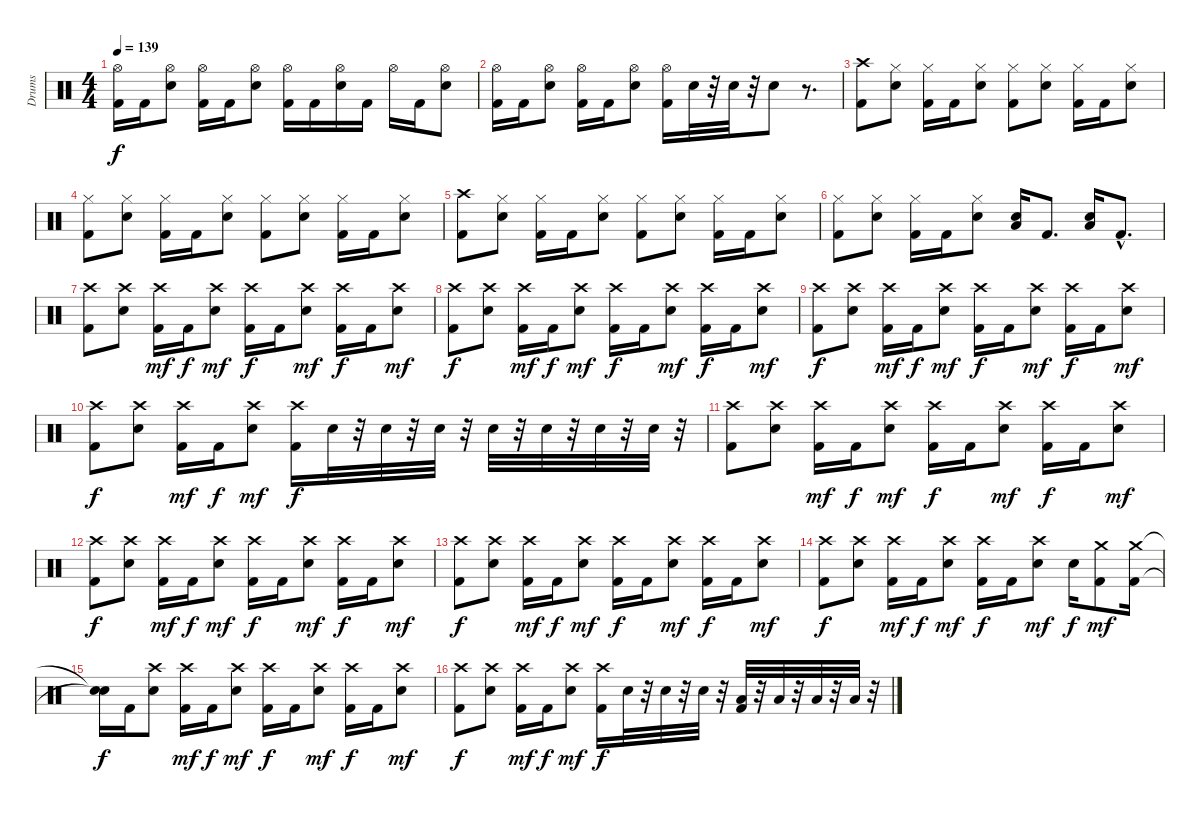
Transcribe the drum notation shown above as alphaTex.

\track ("Drums" "Drums") {instrument percussion}
\staff {score}
\articulation defaults
\ts (4 4)
\tempo 139
\clef neutral
\ks c
("Kick (hit) 2" "Hi-Hat (open)").16{dy f} "Kick (hit) 2".16 ("Hi-Hat (open)" "Electric Snare (hit)").8 ("Hi-Hat (open)" "Kick (hit) 2").16 "Kick (hit) 2".16 ("Hi-Hat (open)" "Electric Snare (hit)").8 ("Hi-Hat (open)" "Kick (hit) 2").16 "Kick (hit) 2".16 ("Hi-Hat (open)" "Electric Snare (hit)").16 "Kick (hit) 2".16 "Hi-Hat (open)".16 "Kick (hit) 2".16 ("Hi-Hat (open)" "Electric Snare (hit)").8 |
("Kick (hit) 2" "Hi-Hat (open)").16 "Kick (hit) 2".16 ("Hi-Hat (open)" "Electric Snare (hit)").8 ("Hi-Hat (open)" "Kick (hit) 2").16 "Kick (hit) 2".16 ("Hi-Hat (open)" "Electric Snare (hit)").8 ("Hi-Hat (open)" "Kick (hit) 2").16 "Electric Snare (hit)".32 r.32 "Electric Snare (hit)".32 r.32 "Electric Snare (hit)".8 r.8{d} |
("Crash high (hit)" "Kick (hit) 2").8 ("Hi-Hat (closed)" "Electric Snare (hit)").8 ("Hi-Hat (closed)" "Kick (hit) 2").16 "Kick (hit) 2".16 ("Hi-Hat (closed)" "Electric Snare (hit)").8 ("Kick (hit) 2" "Hi-Hat (closed)").8 ("Hi-Hat (closed)" "Electric Snare (hit)").8 ("Hi-Hat (closed)" "Kick (hit) 2").16 "Kick (hit) 2".16 ("Hi-Hat (closed)" "Electric Snare (hit)").8 |
("Kick (hit) 2" "Hi-Hat (closed)").8 ("Hi-Hat (closed)" "Electric Snare (hit)").8 ("Hi-Hat (closed)" "Kick (hit) 2").16 "Kick (hit) 2".16 ("Hi-Hat (closed)" "Electric Snare (hit)").8 ("Kick (hit) 2" "Hi-Hat (closed)").8 ("Hi-Hat (closed)" "Electric Snare (hit)").8 ("Hi-Hat (closed)" "Kick (hit) 2").16 "Kick (hit) 2".16 ("Hi-Hat (closed)" "Electric Snare (hit)").8 |
("Crash high (hit)" "Kick (hit) 2").8 ("Hi-Hat (closed)" "Electric Snare (hit)").8 ("Hi-Hat (closed)" "Kick (hit) 2").16 "Kick (hit) 2".16 ("Hi-Hat (closed)" "Electric Snare (hit)").8 ("Kick (hit) 2" "Hi-Hat (closed)").8 ("Hi-Hat (closed)" "Electric Snare (hit)").8 ("Hi-Hat (closed)" "Kick (hit) 2").16 "Kick (hit) 2".16 ("Hi-Hat (closed)" "Electric Snare (hit)").8 |
("Kick (hit) 2" "Hi-Hat (closed)").8 ("Hi-Hat (closed)" "Electric Snare (hit)").8 ("Hi-Hat (closed)" "Kick (hit) 2").16 "Kick (hit) 2".16 ("Hi-Hat (closed)" "Electric Snare (hit)").8 ("Electric Snare (hit)" "Low Floor Tom (hit)").16 "Kick (hit) 2".8{d} ("Electric Snare (hit)" "Low Floor Tom (hit)").16 "Kick (hit) 2"{hac}.8{d} |
("Crash high (hit)" "Kick (hit) 2").8 ("Electric Snare (hit)" "Crash high (hit)").8 ("Kick (hit) 2" "Crash high (hit)").16{dy mf} "Kick (hit) 2".16{dy f} ("Electric Snare (hit)" "Crash high (hit)").8{dy mf} ("Kick (hit) 2" "Crash high (hit)").16{dy f} "Kick (hit) 2".16 ("Electric Snare (hit)" "Crash high (hit)").8{dy mf} ("Kick (hit) 2" "Crash high (hit)").16{dy f} "Kick (hit) 2".16 ("Electric Snare (hit)" "Crash high (hit)").8{dy mf} |
("Crash high (hit)" "Kick (hit) 2").8{dy f} ("Electric Snare (hit)" "Crash high (hit)").8 ("Kick (hit) 2" "Crash high (hit)").16{dy mf} "Kick (hit) 2".16{dy f} ("Electric Snare (hit)" "Crash high (hit)").8{dy mf} ("Kick (hit) 2" "Crash high (hit)").16{dy f} "Kick (hit) 2".16 ("Electric Snare (hit)" "Crash high (hit)").8{dy mf} ("Kick (hit) 2" "Crash high (hit)").16{dy f} "Kick (hit) 2".16 ("Electric Snare (hit)" "Crash high (hit)").8{dy mf} |
("Crash high (hit)" "Kick (hit) 2").8{dy f} ("Electric Snare (hit)" "Crash high (hit)").8 ("Kick (hit) 2" "Crash high (hit)").16{dy mf} "Kick (hit) 2".16{dy f} ("Electric Snare (hit)" "Crash high (hit)").8{dy mf} ("Kick (hit) 2" "Crash high (hit)").16{dy f} "Kick (hit) 2".16 ("Electric Snare (hit)" "Crash high (hit)").8{dy mf} ("Kick (hit) 2" "Crash high (hit)").16{dy f} "Kick (hit) 2".16 ("Electric Snare (hit)" "Crash high (hit)").8{dy mf} |
("Crash high (hit)" "Kick (hit) 2").8{dy f} ("Electric Snare (hit)" "Crash high (hit)").8 ("Kick (hit) 2" "Crash high (hit)").16{dy mf} "Kick (hit) 2".16{dy f} ("Electric Snare (hit)" "Crash high (hit)").8{dy mf} ("Kick (hit) 2" "Crash high (hit)").16{dy f} "Electric Snare (hit)".32 r.32 "Electric Snare (hit)".32 r.32 "Electric Snare (hit)".32 r.32 "Electric Snare (hit)".32 r.32 "Electric Snare (hit)".32 r.32 "Electric Snare (hit)".32 r.32 "Electric Snare (hit)".32 r.32 |
("Crash high (hit)" "Kick (hit) 2").8 ("Electric Snare (hit)" "Crash high (hit)").8 ("Kick (hit) 2" "Crash high (hit)").16{dy mf} "Kick (hit) 2".16{dy f} ("Electric Snare (hit)" "Crash high (hit)").8{dy mf} ("Kick (hit) 2" "Crash high (hit)").16{dy f} "Kick (hit) 2".16 ("Electric Snare (hit)" "Crash high (hit)").8{dy mf} ("Kick (hit) 2" "Crash high (hit)").16{dy f} "Kick (hit) 2".16 ("Electric Snare (hit)" "Crash high (hit)").8{dy mf} |
("Crash high (hit)" "Kick (hit) 2").8{dy f} ("Electric Snare (hit)" "Crash high (hit)").8 ("Kick (hit) 2" "Crash high (hit)").16{dy mf} "Kick (hit) 2".16{dy f} ("Electric Snare (hit)" "Crash high (hit)").8{dy mf} ("Kick (hit) 2" "Crash high (hit)").16{dy f} "Kick (hit) 2".16 ("Electric Snare (hit)" "Crash high (hit)").8{dy mf} ("Kick (hit) 2" "Crash high (hit)").16{dy f} "Kick (hit) 2".16 ("Electric Snare (hit)" "Crash high (hit)").8{dy mf} |
("Crash high (hit)" "Kick (hit) 2").8{dy f} ("Electric Snare (hit)" "Crash high (hit)").8 ("Kick (hit) 2" "Crash high (hit)").16{dy mf} "Kick (hit) 2".16{dy f} ("Electric Snare (hit)" "Crash high (hit)").8{dy mf} ("Kick (hit) 2" "Crash high (hit)").16{dy f} "Kick (hit) 2".16 ("Electric Snare (hit)" "Crash high (hit)").8{dy mf} ("Kick (hit) 2" "Crash high (hit)").16{dy f} "Kick (hit) 2".16 ("Electric Snare (hit)" "Crash high (hit)").8{dy mf} |
("Crash high (hit)" "Kick (hit) 2").8{dy f} ("Electric Snare (hit)" "Crash high (hit)").8 ("Kick (hit) 2" "Crash high (hit)").16{dy mf} "Kick (hit) 2".16{dy f} ("Electric Snare (hit)" "Crash high (hit)").8{dy mf} ("Kick (hit) 2" "Crash high (hit)").16{dy f} "Kick (hit) 2".16 ("Electric Snare (hit)" "Crash high (hit)").8{dy mf} "Electric Snare (hit)".16{dy f} ("Kick (hit) 2" "Crash medium (hit)").8{dy mf} ("Crash medium (hit)" "Kick (hit) 2").16 |
("Snare (hit)"{t} "Snare (hit)"{t}).16{dy f} "Kick (hit) 2".16 ("Electric Snare (hit)" "Crash high (hit)").8 ("Kick (hit) 2" "Crash high (hit)").16{dy mf} "Kick (hit) 2".16{dy f} ("Electric Snare (hit)" "Crash high (hit)").8{dy mf} ("Kick (hit) 2" "Crash high (hit)").16{dy f} "Kick (hit) 2".16 ("Electric Snare (hit)" "Crash high (hit)").8{dy mf} ("Kick (hit) 2" "Crash high (hit)").16{dy f} "Kick (hit) 2".16 ("Electric Snare (hit)" "Crash high (hit)").8{dy mf} |
("Crash high (hit)" "Kick (hit) 2").8{dy f} ("Electric Snare (hit)" "Crash high (hit)").8 ("Kick (hit) 2" "Crash high (hit)").16{dy mf} "Kick (hit) 2".16{dy f} ("Electric Snare (hit)" "Crash high (hit)").8{dy mf} ("Kick (hit) 2" "Crash high (hit)").16{dy f} "Electric Snare (hit)".32 r.32 "Electric Snare (hit)".32 r.32 "Electric Snare (hit)".32 r.32 ("Kick (hit) 2" "Low Tom (hit)").32 r.32 "Low Tom (hit)".32 r.32 "Low Floor Tom (hit)".32 r.32 "Low Floor Tom (hit)".32 r.32
